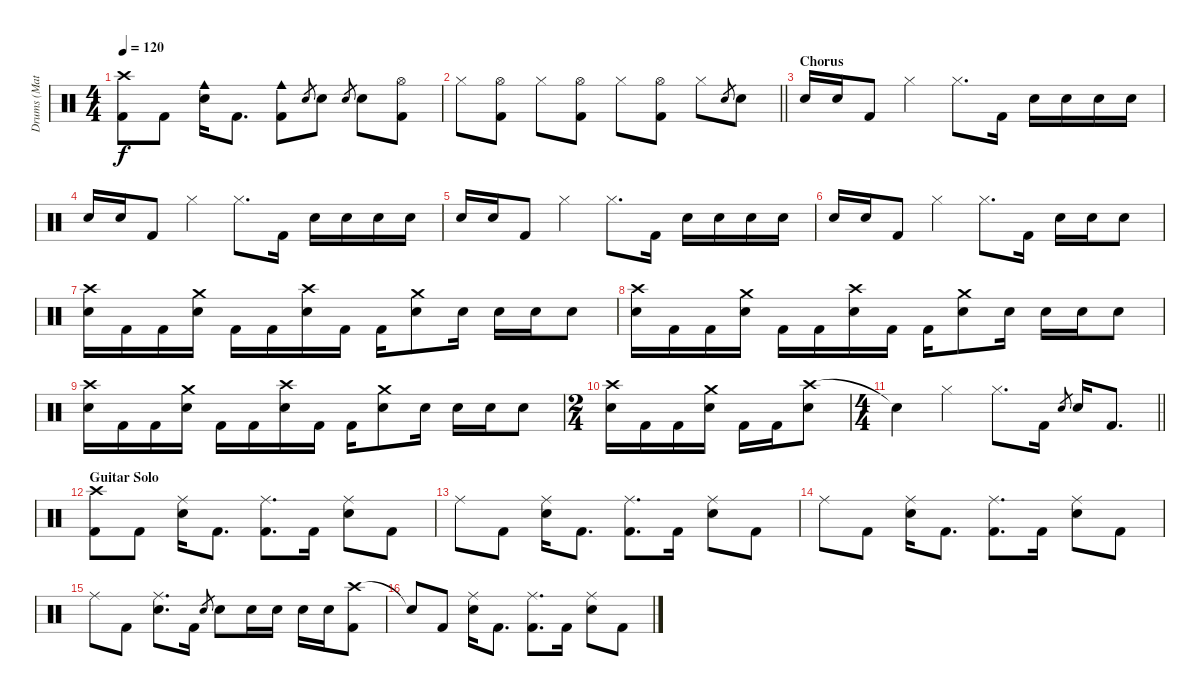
\track ("Drums (Matt)" "Drums (Mat") {instrument percussion}
\staff {score}
\articulation defaults
\ts (4 4)
\tempo 120
\clef neutral
\ks c
("Crash high (hit)" "Kick (hit) 2").8{dy f} "Kick (hit) 2".8 ("Cowbell medium (hit)" "Snare (hit) 2").16 "Kick (hit) 2".8{d} ("Cowbell medium (hit)" "Kick (hit) 2").8 "Snare (hit) 2".8{gr} "Snare (hit) 2".8 "Snare (hit) 2".8{gr} "Snare (hit) 2".8 ("Hi-Hat (open)" "Kick (hit) 2").8 |
\barLineRight lightlight "Hi-Hat (closed)".8
("Hi-Hat (open)" "Kick (hit) 2").8 "Hi-Hat (closed)".8 ("Hi-Hat (open)" "Kick (hit) 2").8 "Hi-Hat (closed)".8 ("Hi-Hat (open)" "Kick (hit) 2").8 "Hi-Hat (closed)".8 "Snare (hit) 2".8{gr} "Snare (hit) 2".8 |
\section ("" "Chorus")
"Snare (hit) 2".16 "Snare (hit) 2".16 "Kick (hit) 2".8 "Hi-Hat (closed)".4 "Hi-Hat (closed)".8{d} "Kick (hit) 2".16 "Snare (hit) 2".16 "Snare (hit) 2".16 "Snare (hit) 2".16 "Snare (hit) 2".16 |
"Snare (hit) 2".16 "Snare (hit) 2".16 "Kick (hit) 2".8 "Hi-Hat (closed)".4 "Hi-Hat (closed)".8{d} "Kick (hit) 2".16 "Snare (hit) 2".16 "Snare (hit) 2".16 "Snare (hit) 2".16 "Snare (hit) 2".16 |
"Snare (hit) 2".16 "Snare (hit) 2".16 "Kick (hit) 2".8 "Hi-Hat (closed)".4 "Hi-Hat (closed)".8{d} "Kick (hit) 2".16 "Snare (hit) 2".16 "Snare (hit) 2".16 "Snare (hit) 2".16 "Snare (hit) 2".16 |
"Snare (hit) 2".16 "Snare (hit) 2".16 "Kick (hit) 2".8 "Hi-Hat (closed)".4 "Hi-Hat (closed)".8{d} "Kick (hit) 2".16 "Snare (hit) 2".16 "Snare (hit) 2".16 "Snare (hit) 2".8 |
("Crash high (hit)" "Snare (hit) 2").16 "Kick (hit) 2".16 "Kick (hit) 2".16 ("Crash medium (hit)" "Snare (hit) 2").16 "Kick (hit) 2".16 "Kick (hit) 2".16 ("Crash high (hit)" "Snare (hit) 2").16 "Kick (hit) 2".16 "Kick (hit) 2".16 ("Crash medium (hit)" "Snare (hit) 2").8 "Snare (hit) 2".16 "Snare (hit) 2".16 "Snare (hit) 2".16 "Snare (hit) 2".8 |
("Crash high (hit)" "Snare (hit) 2").16 "Kick (hit) 2".16 "Kick (hit) 2".16 ("Crash medium (hit)" "Snare (hit) 2").16 "Kick (hit) 2".16 "Kick (hit) 2".16 ("Crash high (hit)" "Snare (hit) 2").16 "Kick (hit) 2".16 "Kick (hit) 2".16 ("Crash medium (hit)" "Snare (hit) 2").8 "Snare (hit) 2".16 "Snare (hit) 2".16 "Snare (hit) 2".16 "Snare (hit) 2".8 |
("Crash high (hit)" "Snare (hit) 2").16 "Kick (hit) 2".16 "Kick (hit) 2".16 ("Crash medium (hit)" "Snare (hit) 2").16 "Kick (hit) 2".16 "Kick (hit) 2".16 ("Crash high (hit)" "Snare (hit) 2").16 "Kick (hit) 2".16 "Kick (hit) 2".16 ("Crash medium (hit)" "Snare (hit) 2").8 "Snare (hit) 2".16 "Snare (hit) 2".16 "Snare (hit) 2".16 "Snare (hit) 2".8 |
\ts (2 4)
("Crash high (hit)" "Snare (hit) 2").16 "Kick (hit) 2".16 "Kick (hit) 2".16 ("Crash medium (hit)" "Snare (hit) 2").16 "Kick (hit) 2".16 "Kick (hit) 2".16 ("Crash high (hit)" "Snare (hit) 2").8 |
\ts (4 4)
\barLineRight lightlight "Snare (hit)"{t}.4 "Hi-Hat (closed)".4 "Hi-Hat (closed)".8{d} "Kick (hit) 2".16 "Snare (hit) 2".8{gr} "Snare (hit) 2".16 "Kick (hit) 2".8{d}
|
\section ("" "Guitar Solo")
("Crash high (hit)" "Kick (hit) 2").8 "Kick (hit) 2".8 ("Ride (middle)" "Snare (hit) 2").16 "Kick (hit) 2".8{d} ("Ride (middle)" "Kick (hit) 2").8{d} "Kick (hit) 2".16 ("Ride (middle)" "Snare (hit) 2").8 "Kick (hit) 2".8 |
"Ride (middle)".8 "Kick (hit) 2".8 ("Ride (middle)" "Snare (hit) 2").16 "Kick (hit) 2".8{d} ("Ride (middle)" "Kick (hit) 2").8{d} "Kick (hit) 2".16 ("Ride (middle)" "Snare (hit) 2").8 "Kick (hit) 2".8 |
"Ride (middle)".8 "Kick (hit) 2".8 ("Ride (middle)" "Snare (hit) 2").16 "Kick (hit) 2".8{d} ("Ride (middle)" "Kick (hit) 2").8{d} "Kick (hit) 2".16 ("Ride (middle)" "Snare (hit) 2").8 "Kick (hit) 2".8 |
"Ride (middle)".8 "Kick (hit) 2".8 ("Ride (middle)" "Snare (hit) 2").8{d} "Kick (hit) 2".16 "Snare (hit) 2".8{gr} "Snare (hit) 2".8 "Snare (hit) 2".16 "Snare (hit) 2".16 "Snare (hit) 2".16 "Snare (hit) 2".16 ("Crash high (hit)" "Kick (hit) 2").8 |
"Snare (hit)"{t}.8 "Kick (hit) 2".8 ("Ride (middle)" "Snare (hit) 2").16 "Kick (hit) 2".8{d} ("Ride (middle)" "Kick (hit) 2").8{d} "Kick (hit) 2".16 ("Ride (middle)" "Snare (hit) 2").8 "Kick (hit) 2".8
